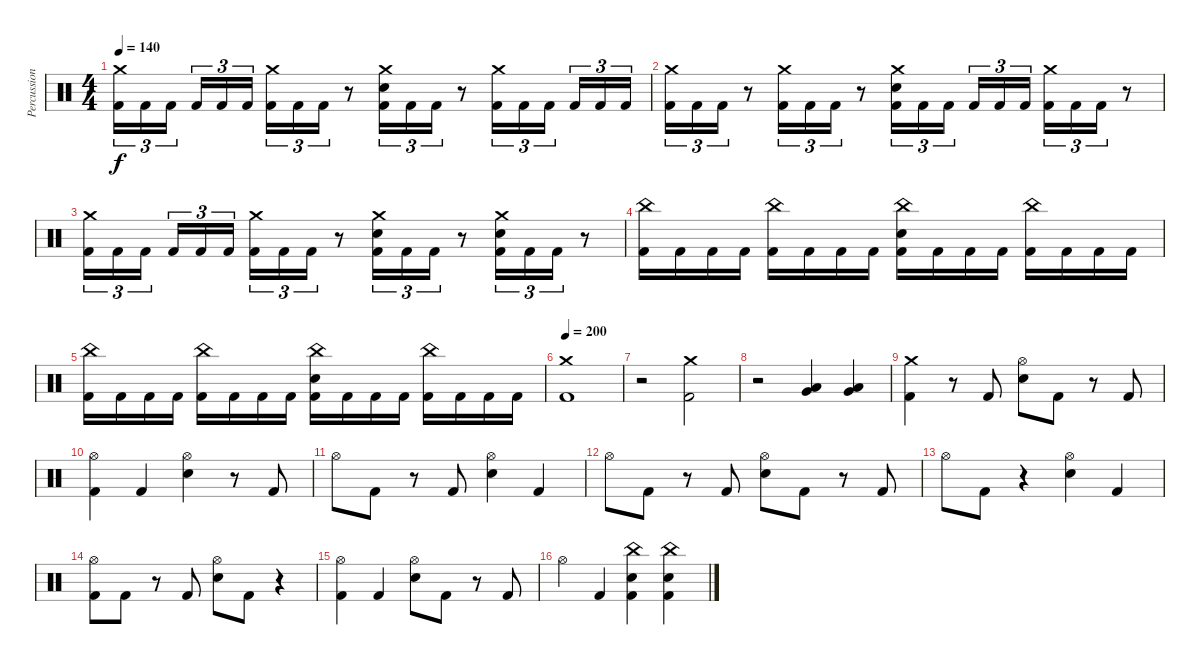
\track ("Percussion" "Percussion") {instrument percussion}
\staff {score}
\articulation defaults
\ts (4 4)
\tempo 140
\clef neutral
\ks c
("Crash medium (hit)" "Kick (hit) 2").16{tu (3 2) dy f} "Kick (hit) 2".16{tu (3 2)} "Kick (hit) 2".16{tu (3 2) beam splitsecondary} "Kick (hit) 2".16{tu (3 2)} "Kick (hit) 2".16{tu (3 2)} "Kick (hit) 2".16{tu (3 2)} ("Crash medium (hit)" "Kick (hit) 2").16{tu (3 2)} "Kick (hit) 2".16{tu (3 2)} "Kick (hit) 2".16{tu (3 2)} r.8 ("Crash medium (hit)" "Electric Snare (hit)" "Kick (hit) 2").16{tu (3 2)} "Kick (hit) 2".16{tu (3 2)} "Kick (hit) 2".16{tu (3 2)} r.8 ("Crash medium (hit)" "Kick (hit) 2").16{tu (3 2)} "Kick (hit) 2".16{tu (3 2)} "Kick (hit) 2".16{tu (3 2) beam splitsecondary} "Kick (hit) 2".16{tu (3 2)} "Kick (hit) 2".16{tu (3 2)} "Kick (hit) 2".16{tu (3 2)} |
("Crash medium (hit)" "Kick (hit) 2").16{tu (3 2)} "Kick (hit) 2".16{tu (3 2)} "Kick (hit) 2".16{tu (3 2)} r.8 ("Crash medium (hit)" "Kick (hit) 2").16{tu (3 2)} "Kick (hit) 2".16{tu (3 2)} "Kick (hit) 2".16{tu (3 2)} r.8 ("Crash medium (hit)" "Electric Snare (hit)" "Kick (hit) 2").16{tu (3 2)} "Kick (hit) 2".16{tu (3 2)} "Kick (hit) 2".16{tu (3 2) beam splitsecondary} "Kick (hit) 2".16{tu (3 2)} "Kick (hit) 2".16{tu (3 2)} "Kick (hit) 2".16{tu (3 2)} ("Crash medium (hit)" "Kick (hit) 2").16{tu (3 2)} "Kick (hit) 2".16{tu (3 2)} "Kick (hit) 2".16{tu (3 2)} r.8 |
("Crash medium (hit)" "Kick (hit) 2").16{tu (3 2)} "Kick (hit) 2".16{tu (3 2)} "Kick (hit) 2".16{tu (3 2) beam splitsecondary} "Kick (hit) 2".16{tu (3 2)} "Kick (hit) 2".16{tu (3 2)} "Kick (hit) 2".16{tu (3 2)} ("Crash medium (hit)" "Kick (hit) 2").16{tu (3 2)} "Kick (hit) 2".16{tu (3 2)} "Kick (hit) 2".16{tu (3 2)} r.8 ("Crash medium (hit)" "Electric Snare (hit)" "Kick (hit) 2").16{tu (3 2)} "Kick (hit) 2".16{tu (3 2)} "Kick (hit) 2".16{tu (3 2)} r.8 ("Crash medium (hit)" "Electric Snare (hit)" "Kick (hit) 2").16{tu (3 2)} "Kick (hit) 2".16{tu (3 2)} "Kick (hit) 2".16{tu (3 2)} r.8 |
("China (hit)" "Kick (hit) 2").16 "Kick (hit) 2".16 "Kick (hit) 2".16 "Kick (hit) 2".16 ("China (hit)" "Kick (hit) 2").16 "Kick (hit) 2".16 "Kick (hit) 2".16 "Kick (hit) 2".16 ("China (hit)" "Electric Snare (hit)" "Kick (hit) 2").16 "Kick (hit) 2".16 "Kick (hit) 2".16 "Kick (hit) 2".16 ("China (hit)" "Kick (hit) 2").16 "Kick (hit) 2".16 "Kick (hit) 2".16 "Kick (hit) 2".16 |
("China (hit)" "Kick (hit) 2").16 "Kick (hit) 2".16 "Kick (hit) 2".16 "Kick (hit) 2".16 ("China (hit)" "Kick (hit) 2").16 "Kick (hit) 2".16 "Kick (hit) 2".16 "Kick (hit) 2".16 ("China (hit)" "Electric Snare (hit)" "Kick (hit) 2").16 "Kick (hit) 2".16 "Kick (hit) 2".16 "Kick (hit) 2".16 ("China (hit)" "Kick (hit) 2").16 "Kick (hit) 2".16 "Kick (hit) 2".16 "Kick (hit) 2".16 |
\tempo 200
("Crash medium (hit)" "Kick (hit) 2").1 |
r.2 ("Crash medium (hit)" "Kick (hit) 2").2 |
r.2 ("Very Low Tom (hit)" "Low Floor Tom (hit)").4 ("Very Low Tom (hit)" "Low Floor Tom (hit)").4 |
("Crash medium (hit)" "Kick (hit) 2").4 r.8 "Kick (hit) 2".8 ("Hi-Hat (open)" "Electric Snare (hit)").8 "Kick (hit) 2".8 r.8 "Kick (hit) 2".8 |
("Hi-Hat (open)" "Kick (hit) 2").4 "Kick (hit) 2".4 ("Hi-Hat (open)" "Electric Snare (hit)").4 r.8 "Kick (hit) 2".8 |
"Hi-Hat (open)".8 "Kick (hit) 2".8 r.8 "Kick (hit) 2".8 ("Hi-Hat (open)" "Electric Snare (hit)").4 "Kick (hit) 2".4 |
"Hi-Hat (open)".8 "Kick (hit) 2".8 r.8 "Kick (hit) 2".8 ("Hi-Hat (open)" "Electric Snare (hit)").8 "Kick (hit) 2".8 r.8 "Kick (hit) 2".8 |
"Hi-Hat (open)".8 "Kick (hit) 2".8 r.4 ("Hi-Hat (open)" "Electric Snare (hit)").4 "Kick (hit) 2".4 |
("Hi-Hat (open)" "Kick (hit) 2").8 "Kick (hit) 2".8 r.8 "Kick (hit) 2".8 ("Hi-Hat (open)" "Electric Snare (hit)").8 "Kick (hit) 2".8 r.4 |
("Hi-Hat (open)" "Kick (hit) 2").4 "Kick (hit) 2".4 ("Hi-Hat (open)" "Electric Snare (hit)").8 "Kick (hit) 2".8 r.8 "Kick (hit) 2".8 |
"Hi-Hat (open)".4 "Kick (hit) 2".4 ("China (hit)" "Electric Snare (hit)" "Kick (hit) 2").4 ("China (hit)" "Electric Snare (hit)" "Kick (hit) 2").4
